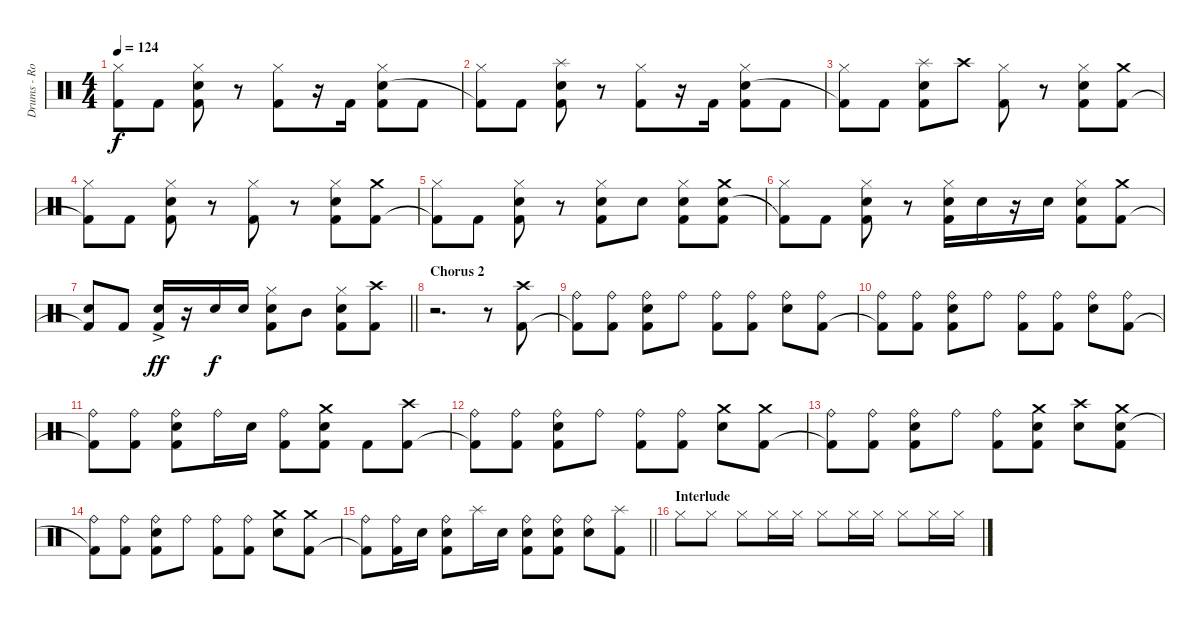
\track ("Drums - Rockenfield" "Drums - Ro") {instrument percussion}
\staff {score}
\articulation defaults
\ts (4 4)
\tempo 124
\clef neutral
\ks c
("Hi-Hat (closed)" "Kick (hit) 2"{t}).8{dy f} "Kick (hit) 2".8 ("Hi-Hat (closed)" "Snare (hit) 2" "Kick (hit) 2").8 r.8 ("Hi-Hat (closed)" "Kick (hit) 2").8 r.16 "Kick (hit) 2".16 ("Hi-Hat (closed)" "Snare (hit) 2" "Kick (hit) 2").8 "Kick (hit) 2".8 |
("Hi-Hat (closed)" "Kick (hit) 2"{t}).8 "Kick (hit) 2".8 ("Splash (hit)" "Snare (hit) 2" "Kick (hit) 2").8 r.8 ("Hi-Hat (closed)" "Kick (hit) 2").8 r.16 "Kick (hit) 2".16 ("Hi-Hat (closed)" "Snare (hit) 2" "Kick (hit) 2").8 "Kick (hit) 2".8 |
("Hi-Hat (closed)" "Kick (hit) 2"{t}).8 "Kick (hit) 2".8 ("Splash (hit)" "Snare (hit) 2" "Kick (hit) 2").8 "Crash high (hit)".8 ("Hi-Hat (closed)" "Kick (hit) 2").8 r.8 ("Hi-Hat (closed)" "Snare (hit) 2" "Kick (hit) 2").8 ("Crash medium (hit)" "Kick (hit) 2").8 |
("Hi-Hat (closed)" "Kick (hit) 2"{t}).8 "Kick (hit) 2".8 ("Hi-Hat (closed)" "Snare (hit) 2" "Kick (hit) 2").8 r.8 ("Hi-Hat (closed)" "Kick (hit) 2").8 r.8 ("Hi-Hat (closed)" "Snare (hit) 2" "Kick (hit) 2").8 ("Crash medium (hit)" "Kick (hit) 2").8 |
("Hi-Hat (closed)" "Kick (hit) 2"{t}).8 "Kick (hit) 2".8 ("Hi-Hat (closed)" "Snare (hit) 2" "Kick (hit) 2").8 r.8 ("Hi-Hat (closed)" "Snare (hit) 2" "Kick (hit) 2").8 "Snare (hit) 2".8 ("Hi-Hat (closed)" "Snare (hit) 2" "Kick (hit) 2").8 ("Crash medium (hit)" "Snare (hit) 2" "Kick (hit) 2").8 |
("Hi-Hat (closed)" "Kick (hit) 2"{t}).8 "Kick (hit) 2".8 ("Hi-Hat (closed)" "Snare (hit) 2" "Kick (hit) 2").8 r.8 ("Hi-Hat (closed)" "Snare (hit) 2" "Kick (hit) 2").16 "Snare (hit) 2".16 r.16 "Snare (hit) 2".16 ("Hi-Hat (closed)" "Snare (hit) 2" "Kick (hit) 2").8 ("Crash medium (hit)" "Kick (hit) 2").8 |
\barLineRight lightlight
("Snare (hit) 2" "Kick (hit) 2"{t}).8 "Kick (hit) 2".8 ("Snare (hit) 2"{ac} "Kick (hit) 2").16{dy ff} r.16 "Snare (hit) 2".16{dy f} "Snare (hit) 2".16 ("Hi-Hat (closed)" "Snare (hit) 2" "Kick (hit) 2").8 "Mid Tom (hit)".8 ("Hi-Hat (closed)" "Snare (hit) 2" "Kick (hit) 2").8 ("Crash high (hit)" "Kick (hit) 2").8 |
\section ("" "Chorus 2")
r.2{d} r.8 ("Crash high (hit)" "Kick (hit) 2").8 |
("Ride (bell)" "Kick (hit) 2"{t}).8 ("Ride (bell)" "Kick (hit) 2").8 ("Ride (bell)" "Snare (hit) 2" "Kick (hit) 2").8 "Ride (bell)".8 ("Ride (bell)" "Kick (hit) 2").8 ("Ride (bell)" "Kick (hit) 2").8 ("Ride (bell)" "Snare (hit) 2").8 ("Ride (bell)" "Kick (hit) 2").8 |
("Ride (bell)" "Kick (hit) 2"{t}).8 ("Ride (bell)" "Kick (hit) 2").8 ("Ride (bell)" "Snare (hit) 2" "Kick (hit) 2").8 "Ride (bell)".8 ("Ride (bell)" "Kick (hit) 2").8 ("Ride (bell)" "Kick (hit) 2").8 ("Ride (bell)" "Snare (hit) 2").8 ("Ride (bell)" "Kick (hit) 2").8 |
("Ride (bell)" "Kick (hit) 2"{t}).8 ("Ride (bell)" "Kick (hit) 2").8 ("Ride (bell)" "Snare (hit) 2" "Kick (hit) 2").8 "Ride (bell)".16 "Snare (hit) 2".16 ("Ride (bell)" "Kick (hit) 2").8 ("Crash medium (hit)" "Snare (hit) 2" "Kick (hit) 2").8 "Kick (hit) 2".8 ("Crash high (hit)" "Kick (hit) 2").8 |
("Ride (bell)" "Kick (hit) 2"{t}).8 ("Ride (bell)" "Kick (hit) 2").8 ("Ride (bell)" "Snare (hit) 2" "Kick (hit) 2").8 "Ride (bell)".8 ("Ride (bell)" "Kick (hit) 2").8 ("Ride (bell)" "Kick (hit) 2").8 ("Crash medium (hit)" "Snare (hit) 2").8 ("Crash medium (hit)" "Kick (hit) 2").8 |
("Ride (bell)" "Kick (hit) 2"{t}).8 ("Ride (bell)" "Kick (hit) 2").8 ("Ride (bell)" "Snare (hit) 2" "Kick (hit) 2").8 "Ride (bell)".8 ("Ride (bell)" "Kick (hit) 2").8 ("Crash medium (hit)" "Snare (hit) 2" "Kick (hit) 2").8 ("Crash high (hit)" "Snare (hit) 2").8 ("Crash medium (hit)" "Snare (hit) 2" "Kick (hit) 2").8 |
("Ride (bell)" "Kick (hit) 2"{t}).8 ("Ride (bell)" "Kick (hit) 2").8 ("Ride (bell)" "Snare (hit) 2" "Kick (hit) 2").8 "Ride (bell)".8 ("Ride (bell)" "Kick (hit) 2").8 ("Ride (bell)" "Kick (hit) 2").8 ("Crash medium (hit)" "Snare (hit) 2").8 ("Crash medium (hit)" "Kick (hit) 2").8 |
\barLineRight lightlight
("Ride (bell)" "Kick (hit) 2"{t}).8 ("Ride (bell)" "Kick (hit) 2").16 "Snare (hit) 2".16 ("Ride (bell)" "Snare (hit) 2" "Kick (hit) 2").8 "Splash (hit)".16 "Snare (hit) 2".16 ("Ride (bell)" "Snare (hit) 2" "Kick (hit) 2").8 ("Ride (bell)" "Snare (hit) 2" "Kick (hit) 2").8 ("Ride (bell)" "Snare (hit) 2").8 ("Splash (hit)" "Kick (hit) 2").8 |
\section ("" "Interlude")
"Hi-Hat (closed)".8 "Hi-Hat (closed)".8 "Hi-Hat (closed)".8 "Hi-Hat (closed)".16 "Hi-Hat (closed)".16 "Hi-Hat (closed)".8 "Hi-Hat (closed)".16 "Hi-Hat (closed)".16 "Hi-Hat (closed)".8 "Hi-Hat (closed)".16 "Hi-Hat (closed)".16
